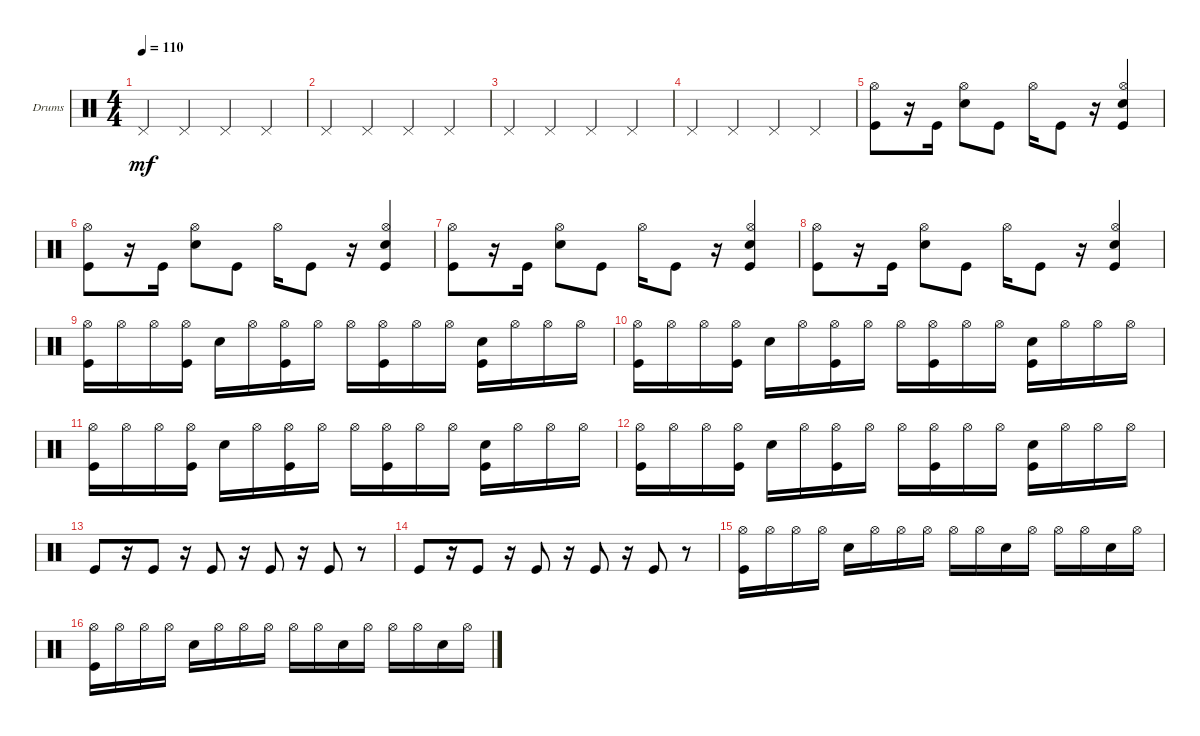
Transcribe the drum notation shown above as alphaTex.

\defaultSystemsLayout 4
\bracketExtendMode groupsimilarinstruments
\firstSystemTrackNameOrientation horizontal
\otherSystemsTrackNameOrientation horizontal
\track ("Fabrizio" "Drums") {instrument percussion}
\staff {score}
\articulation defaults
\ts (4 4)
\tempo 110
\clef neutral
\scale
0.474178
\ks c "Pedal Hi-Hat (hit)".4{dy mf} "Pedal Hi-Hat (hit)".4 "Pedal Hi-Hat (hit)".4 "Pedal Hi-Hat (hit)".4
|
\scale
0.262911 "Pedal Hi-Hat (hit)".4 "Pedal Hi-Hat (hit)".4 "Pedal Hi-Hat (hit)".4 "Pedal Hi-Hat (hit)".4 |
\scale
0.262911 "Pedal Hi-Hat (hit)".4 "Pedal Hi-Hat (hit)".4 "Pedal Hi-Hat (hit)".4 "Pedal Hi-Hat (hit)".4 |
"Pedal Hi-Hat (hit)".4 "Pedal Hi-Hat (hit)".4 "Pedal Hi-Hat (hit)".4 "Pedal Hi-Hat (hit)".4 |
("Kick (hit)" "Hi-Hat (open)").8 r.16 "Kick (hit)".16 ("Snare (hit) 2" "Hi-Hat (open)").8 "Kick (hit)".8 "Hi-Hat (open)".16 "Kick (hit)".8 r.16 ("Snare (hit) 2" "Kick (hit)" "Hi-Hat (open)").4 |
("Kick (hit)" "Hi-Hat (open)").8 r.16 "Kick (hit)".16 ("Snare (hit) 2" "Hi-Hat (open)").8 "Kick (hit)".8 "Hi-Hat (open)".16 "Kick (hit)".8 r.16 ("Snare (hit) 2" "Kick (hit)" "Hi-Hat (open)").4 |
("Kick (hit)" "Hi-Hat (open)").8 r.16 "Kick (hit)".16 ("Snare (hit) 2" "Hi-Hat (open)").8 "Kick (hit)".8 "Hi-Hat (open)".16 "Kick (hit)".8 r.16 ("Snare (hit) 2" "Kick (hit)" "Hi-Hat (open)").4 |
("Kick (hit)" "Hi-Hat (open)").8 r.16 "Kick (hit)".16 ("Snare (hit) 2" "Hi-Hat (open)").8 "Kick (hit)".8 "Hi-Hat (open)".16 "Kick (hit)".8 r.16 ("Snare (hit) 2" "Kick (hit)" "Hi-Hat (open)").4 |
("Kick (hit)" "Hi-Hat (open)").16 "Hi-Hat (open)".16 "Hi-Hat (open)".16 ("Kick (hit)" "Hi-Hat (open)").16 "Snare (hit) 2".16 "Hi-Hat (open)".16 ("Kick (hit)" "Hi-Hat (open)").16 "Hi-Hat (open)".16 "Hi-Hat (open)".16 ("Kick (hit)" "Hi-Hat (open)").16 "Hi-Hat (open)".16 "Hi-Hat (open)".16 ("Snare (hit) 2" "Kick (hit)").16 "Hi-Hat (open)".16 "Hi-Hat (open)".16 "Hi-Hat (open)".16 |
("Kick (hit)" "Hi-Hat (open)").16 "Hi-Hat (open)".16 "Hi-Hat (open)".16 ("Kick (hit)" "Hi-Hat (open)").16 "Snare (hit) 2".16 "Hi-Hat (open)".16 ("Kick (hit)" "Hi-Hat (open)").16 "Hi-Hat (open)".16 "Hi-Hat (open)".16 ("Kick (hit)" "Hi-Hat (open)").16 "Hi-Hat (open)".16 "Hi-Hat (open)".16 ("Snare (hit) 2" "Kick (hit)").16 "Hi-Hat (open)".16 "Hi-Hat (open)".16 "Hi-Hat (open)".16 |
("Kick (hit)" "Hi-Hat (open)").16 "Hi-Hat (open)".16 "Hi-Hat (open)".16 ("Kick (hit)" "Hi-Hat (open)").16 "Snare (hit) 2".16 "Hi-Hat (open)".16 ("Kick (hit)" "Hi-Hat (open)").16 "Hi-Hat (open)".16 "Hi-Hat (open)".16 ("Kick (hit)" "Hi-Hat (open)").16 "Hi-Hat (open)".16 "Hi-Hat (open)".16 ("Snare (hit) 2" "Kick (hit)").16 "Hi-Hat (open)".16 "Hi-Hat (open)".16 "Hi-Hat (open)".16 |
("Kick (hit)" "Hi-Hat (open)").16 "Hi-Hat (open)".16 "Hi-Hat (open)".16 ("Kick (hit)" "Hi-Hat (open)").16 "Snare (hit) 2".16 "Hi-Hat (open)".16 ("Kick (hit)" "Hi-Hat (open)").16 "Hi-Hat (open)".16 "Hi-Hat (open)".16 ("Kick (hit)" "Hi-Hat (open)").16 "Hi-Hat (open)".16 "Hi-Hat (open)".16 ("Snare (hit) 2" "Kick (hit)").16 "Hi-Hat (open)".16 "Hi-Hat (open)".16 "Hi-Hat (open)".16 |
"Kick (hit)".8 r.16 "Kick (hit)".8 r.16 "Kick (hit)".8 r.16 "Kick (hit)".8 r.16 "Kick (hit)".8 r.8 |
"Kick (hit)".8 r.16 "Kick (hit)".8 r.16 "Kick (hit)".8 r.16 "Kick (hit)".8 r.16 "Kick (hit)".8 r.8 |
("Hi-Hat (open)" "Kick (hit)").16 "Hi-Hat (open)".16 "Hi-Hat (open)".16 "Hi-Hat (open)".16 "Snare (hit) 2".16 "Hi-Hat (open)".16 "Hi-Hat (open)".16 "Hi-Hat (open)".16 "Hi-Hat (open)".16 "Hi-Hat (open)".16 "Snare (hit) 2".16 "Hi-Hat (open)".16 "Hi-Hat (open)".16 "Hi-Hat (open)".16 "Snare (hit) 2".16 "Hi-Hat (open)".16 |
("Hi-Hat (open)" "Kick (hit)").16 "Hi-Hat (open)".16 "Hi-Hat (open)".16 "Hi-Hat (open)".16 "Snare (hit) 2".16 "Hi-Hat (open)".16 "Hi-Hat (open)".16 "Hi-Hat (open)".16 "Hi-Hat (open)".16 "Hi-Hat (open)".16 "Snare (hit) 2".16 "Hi-Hat (open)".16 "Hi-Hat (open)".16 "Hi-Hat (open)".16 "Snare (hit) 2".16 "Hi-Hat (open)".16
